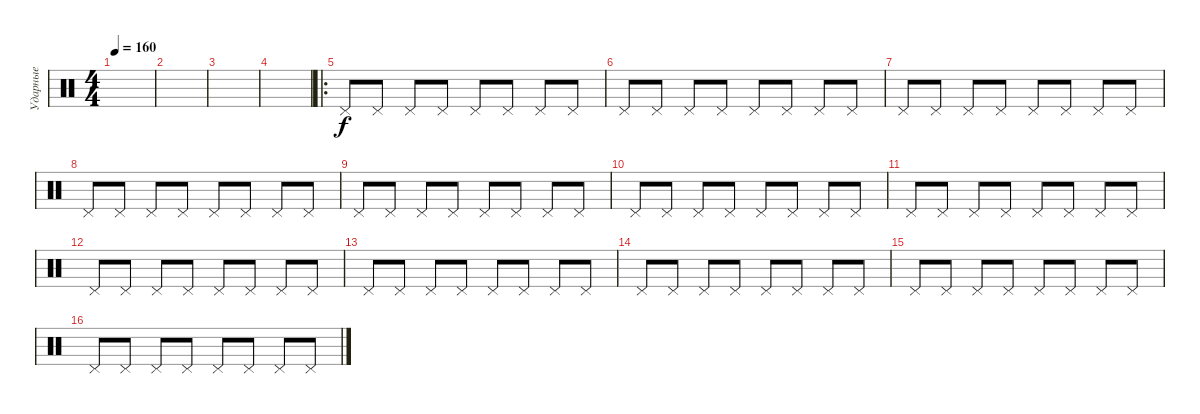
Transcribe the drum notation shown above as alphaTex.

\track ("Ударные" "Ударные") {instrument percussion}
\staff {score}
\articulation defaults
\ts (4 4)
\tempo 160
\clef neutral
\ks c
|
|
|
|
\ro "Pedal Hi-Hat (hit)".8 "Pedal Hi-Hat (hit)".8 "Pedal Hi-Hat (hit)".8 "Pedal Hi-Hat (hit)".8 "Pedal Hi-Hat (hit)".8 "Pedal Hi-Hat (hit)".8 "Pedal Hi-Hat (hit)".8 "Pedal Hi-Hat (hit)".8
|
"Pedal Hi-Hat (hit)".8 "Pedal Hi-Hat (hit)".8 "Pedal Hi-Hat (hit)".8 "Pedal Hi-Hat (hit)".8 "Pedal Hi-Hat (hit)".8 "Pedal Hi-Hat (hit)".8 "Pedal Hi-Hat (hit)".8 "Pedal Hi-Hat (hit)".8 |
"Pedal Hi-Hat (hit)".8 "Pedal Hi-Hat (hit)".8 "Pedal Hi-Hat (hit)".8 "Pedal Hi-Hat (hit)".8 "Pedal Hi-Hat (hit)".8 "Pedal Hi-Hat (hit)".8 "Pedal Hi-Hat (hit)".8 "Pedal Hi-Hat (hit)".8 |
"Pedal Hi-Hat (hit)".8 "Pedal Hi-Hat (hit)".8 "Pedal Hi-Hat (hit)".8 "Pedal Hi-Hat (hit)".8 "Pedal Hi-Hat (hit)".8 "Pedal Hi-Hat (hit)".8 "Pedal Hi-Hat (hit)".8 "Pedal Hi-Hat (hit)".8 |
"Pedal Hi-Hat (hit)".8 "Pedal Hi-Hat (hit)".8 "Pedal Hi-Hat (hit)".8 "Pedal Hi-Hat (hit)".8 "Pedal Hi-Hat (hit)".8 "Pedal Hi-Hat (hit)".8 "Pedal Hi-Hat (hit)".8 "Pedal Hi-Hat (hit)".8 |
"Pedal Hi-Hat (hit)".8 "Pedal Hi-Hat (hit)".8 "Pedal Hi-Hat (hit)".8 "Pedal Hi-Hat (hit)".8 "Pedal Hi-Hat (hit)".8 "Pedal Hi-Hat (hit)".8 "Pedal Hi-Hat (hit)".8 "Pedal Hi-Hat (hit)".8 |
"Pedal Hi-Hat (hit)".8 "Pedal Hi-Hat (hit)".8 "Pedal Hi-Hat (hit)".8 "Pedal Hi-Hat (hit)".8 "Pedal Hi-Hat (hit)".8 "Pedal Hi-Hat (hit)".8 "Pedal Hi-Hat (hit)".8 "Pedal Hi-Hat (hit)".8 |
"Pedal Hi-Hat (hit)".8 "Pedal Hi-Hat (hit)".8 "Pedal Hi-Hat (hit)".8 "Pedal Hi-Hat (hit)".8 "Pedal Hi-Hat (hit)".8 "Pedal Hi-Hat (hit)".8 "Pedal Hi-Hat (hit)".8 "Pedal Hi-Hat (hit)".8 |
"Pedal Hi-Hat (hit)".8 "Pedal Hi-Hat (hit)".8 "Pedal Hi-Hat (hit)".8 "Pedal Hi-Hat (hit)".8 "Pedal Hi-Hat (hit)".8 "Pedal Hi-Hat (hit)".8 "Pedal Hi-Hat (hit)".8 "Pedal Hi-Hat (hit)".8 |
"Pedal Hi-Hat (hit)".8 "Pedal Hi-Hat (hit)".8 "Pedal Hi-Hat (hit)".8 "Pedal Hi-Hat (hit)".8 "Pedal Hi-Hat (hit)".8 "Pedal Hi-Hat (hit)".8 "Pedal Hi-Hat (hit)".8 "Pedal Hi-Hat (hit)".8 |
"Pedal Hi-Hat (hit)".8 "Pedal Hi-Hat (hit)".8 "Pedal Hi-Hat (hit)".8 "Pedal Hi-Hat (hit)".8 "Pedal Hi-Hat (hit)".8 "Pedal Hi-Hat (hit)".8 "Pedal Hi-Hat (hit)".8 "Pedal Hi-Hat (hit)".8 |
"Pedal Hi-Hat (hit)".8 "Pedal Hi-Hat (hit)".8 "Pedal Hi-Hat (hit)".8 "Pedal Hi-Hat (hit)".8 "Pedal Hi-Hat (hit)".8 "Pedal Hi-Hat (hit)".8 "Pedal Hi-Hat (hit)".8 "Pedal Hi-Hat (hit)".8
